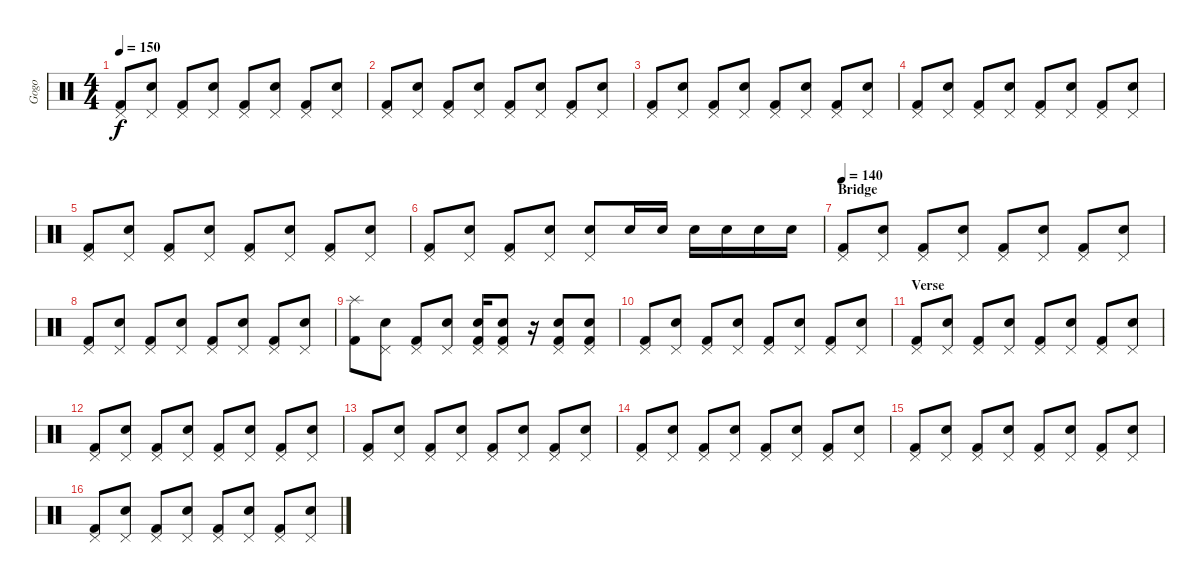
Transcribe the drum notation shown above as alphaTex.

\track ("Gogo" "Gogo") {instrument percussion}
\staff {score}
\articulation defaults
\ts (4 4)
\tempo 150
\clef neutral
\ks c
("Pedal Hi-Hat (hit)" "Kick (hit) 2").8{dy f} ("Pedal Hi-Hat (hit)" "Electric Snare (hit)").8 ("Pedal Hi-Hat (hit)" "Kick (hit) 2").8 ("Pedal Hi-Hat (hit)" "Electric Snare (hit)").8 ("Pedal Hi-Hat (hit)" "Kick (hit) 2").8 ("Pedal Hi-Hat (hit)" "Electric Snare (hit)").8 ("Pedal Hi-Hat (hit)" "Kick (hit) 2").8 ("Pedal Hi-Hat (hit)" "Electric Snare (hit)").8 |
("Pedal Hi-Hat (hit)" "Kick (hit) 2").8 ("Pedal Hi-Hat (hit)" "Electric Snare (hit)").8 ("Pedal Hi-Hat (hit)" "Kick (hit) 2").8 ("Pedal Hi-Hat (hit)" "Electric Snare (hit)").8 ("Pedal Hi-Hat (hit)" "Kick (hit) 2").8 ("Pedal Hi-Hat (hit)" "Electric Snare (hit)").8 ("Pedal Hi-Hat (hit)" "Kick (hit) 2").8 ("Pedal Hi-Hat (hit)" "Electric Snare (hit)").8 |
("Pedal Hi-Hat (hit)" "Kick (hit) 2").8 ("Pedal Hi-Hat (hit)" "Electric Snare (hit)").8 ("Pedal Hi-Hat (hit)" "Kick (hit) 2").8 ("Pedal Hi-Hat (hit)" "Electric Snare (hit)").8 ("Pedal Hi-Hat (hit)" "Kick (hit) 2").8 ("Pedal Hi-Hat (hit)" "Electric Snare (hit)").8 ("Pedal Hi-Hat (hit)" "Kick (hit) 2").8 ("Pedal Hi-Hat (hit)" "Electric Snare (hit)").8 |
("Pedal Hi-Hat (hit)" "Kick (hit) 2").8 ("Pedal Hi-Hat (hit)" "Electric Snare (hit)").8 ("Pedal Hi-Hat (hit)" "Kick (hit) 2").8 ("Pedal Hi-Hat (hit)" "Electric Snare (hit)").8 ("Pedal Hi-Hat (hit)" "Kick (hit) 2").8 ("Pedal Hi-Hat (hit)" "Electric Snare (hit)").8 ("Pedal Hi-Hat (hit)" "Kick (hit) 2").8 ("Pedal Hi-Hat (hit)" "Electric Snare (hit)").8 |
("Pedal Hi-Hat (hit)" "Kick (hit) 2").8 ("Pedal Hi-Hat (hit)" "Electric Snare (hit)").8 ("Pedal Hi-Hat (hit)" "Kick (hit) 2").8 ("Pedal Hi-Hat (hit)" "Electric Snare (hit)").8 ("Pedal Hi-Hat (hit)" "Kick (hit) 2").8 ("Pedal Hi-Hat (hit)" "Electric Snare (hit)").8 ("Pedal Hi-Hat (hit)" "Kick (hit) 2").8 ("Pedal Hi-Hat (hit)" "Electric Snare (hit)").8 |
("Pedal Hi-Hat (hit)" "Kick (hit) 2").8 ("Pedal Hi-Hat (hit)" "Electric Snare (hit)").8 ("Pedal Hi-Hat (hit)" "Kick (hit) 2").8 ("Pedal Hi-Hat (hit)" "Electric Snare (hit)").8 ("Pedal Hi-Hat (hit)" "Electric Snare (hit)").8 "Electric Snare (hit)".16 "Electric Snare (hit)".16 "Electric Snare (hit)".16 "Electric Snare (hit)".16 "Electric Snare (hit)".16 "Electric Snare (hit)".16 |
\section ("" "Bridge")
\tempo 140
("Pedal Hi-Hat (hit)" "Kick (hit) 2").8 ("Pedal Hi-Hat (hit)" "Electric Snare (hit)").8 ("Pedal Hi-Hat (hit)" "Kick (hit) 2").8 ("Pedal Hi-Hat (hit)" "Electric Snare (hit)").8 ("Pedal Hi-Hat (hit)" "Kick (hit) 2").8 ("Pedal Hi-Hat (hit)" "Electric Snare (hit)").8 ("Pedal Hi-Hat (hit)" "Kick (hit) 2").8 ("Pedal Hi-Hat (hit)" "Electric Snare (hit)").8 |
("Pedal Hi-Hat (hit)" "Kick (hit) 2").8 ("Pedal Hi-Hat (hit)" "Electric Snare (hit)").8 ("Pedal Hi-Hat (hit)" "Kick (hit) 2").8 ("Pedal Hi-Hat (hit)" "Electric Snare (hit)").8 ("Pedal Hi-Hat (hit)" "Kick (hit) 2").8 ("Pedal Hi-Hat (hit)" "Electric Snare (hit)").8 ("Pedal Hi-Hat (hit)" "Kick (hit) 2").8 ("Pedal Hi-Hat (hit)" "Electric Snare (hit)").8 |
("Splash (hit)" "Kick (hit) 2").8 ("Pedal Hi-Hat (hit)" "Electric Snare (hit)").8 ("Pedal Hi-Hat (hit)" "Kick (hit) 2").8 ("Pedal Hi-Hat (hit)" "Electric Snare (hit)").8 ("Pedal Hi-Hat (hit)" "Electric Snare (hit)" "Kick (hit) 2").16 ("Pedal Hi-Hat (hit)" "Electric Snare (hit)" "Kick (hit) 2").8 r.16 ("Pedal Hi-Hat (hit)" "Electric Snare (hit)" "Kick (hit) 2").8 ("Pedal Hi-Hat (hit)" "Electric Snare (hit)" "Kick (hit) 2").8 |
("Pedal Hi-Hat (hit)" "Kick (hit) 2").8 ("Pedal Hi-Hat (hit)" "Electric Snare (hit)").8 ("Pedal Hi-Hat (hit)" "Kick (hit) 2").8 ("Pedal Hi-Hat (hit)" "Electric Snare (hit)").8 ("Pedal Hi-Hat (hit)" "Kick (hit) 2").8 ("Pedal Hi-Hat (hit)" "Electric Snare (hit)").8 ("Pedal Hi-Hat (hit)" "Kick (hit) 2").8 ("Pedal Hi-Hat (hit)" "Electric Snare (hit)").8 |
\section ("" "Verse")
("Pedal Hi-Hat (hit)" "Kick (hit) 2").8 ("Pedal Hi-Hat (hit)" "Electric Snare (hit)").8 ("Pedal Hi-Hat (hit)" "Kick (hit) 2").8 ("Pedal Hi-Hat (hit)" "Electric Snare (hit)").8 ("Pedal Hi-Hat (hit)" "Kick (hit) 2").8 ("Pedal Hi-Hat (hit)" "Electric Snare (hit)").8 ("Pedal Hi-Hat (hit)" "Kick (hit) 2").8 ("Pedal Hi-Hat (hit)" "Electric Snare (hit)").8 |
("Pedal Hi-Hat (hit)" "Kick (hit) 2").8 ("Pedal Hi-Hat (hit)" "Electric Snare (hit)").8 ("Pedal Hi-Hat (hit)" "Kick (hit) 2").8 ("Pedal Hi-Hat (hit)" "Electric Snare (hit)").8 ("Pedal Hi-Hat (hit)" "Kick (hit) 2").8 ("Pedal Hi-Hat (hit)" "Electric Snare (hit)").8 ("Pedal Hi-Hat (hit)" "Kick (hit) 2").8 ("Pedal Hi-Hat (hit)" "Electric Snare (hit)").8 |
("Pedal Hi-Hat (hit)" "Kick (hit) 2").8 ("Pedal Hi-Hat (hit)" "Electric Snare (hit)").8 ("Pedal Hi-Hat (hit)" "Kick (hit) 2").8 ("Pedal Hi-Hat (hit)" "Electric Snare (hit)").8 ("Pedal Hi-Hat (hit)" "Kick (hit) 2").8 ("Pedal Hi-Hat (hit)" "Electric Snare (hit)").8 ("Pedal Hi-Hat (hit)" "Kick (hit) 2").8 ("Pedal Hi-Hat (hit)" "Electric Snare (hit)").8 |
("Pedal Hi-Hat (hit)" "Kick (hit) 2").8 ("Pedal Hi-Hat (hit)" "Electric Snare (hit)").8 ("Pedal Hi-Hat (hit)" "Kick (hit) 2").8 ("Pedal Hi-Hat (hit)" "Electric Snare (hit)").8 ("Pedal Hi-Hat (hit)" "Kick (hit) 2").8 ("Pedal Hi-Hat (hit)" "Electric Snare (hit)").8 ("Pedal Hi-Hat (hit)" "Kick (hit) 2").8 ("Pedal Hi-Hat (hit)" "Electric Snare (hit)").8 |
("Pedal Hi-Hat (hit)" "Kick (hit) 2").8 ("Pedal Hi-Hat (hit)" "Electric Snare (hit)").8 ("Pedal Hi-Hat (hit)" "Kick (hit) 2").8 ("Pedal Hi-Hat (hit)" "Electric Snare (hit)").8 ("Pedal Hi-Hat (hit)" "Kick (hit) 2").8 ("Pedal Hi-Hat (hit)" "Electric Snare (hit)").8 ("Pedal Hi-Hat (hit)" "Kick (hit) 2").8 ("Pedal Hi-Hat (hit)" "Electric Snare (hit)").8 |
("Pedal Hi-Hat (hit)" "Kick (hit) 2").8 ("Pedal Hi-Hat (hit)" "Electric Snare (hit)").8 ("Pedal Hi-Hat (hit)" "Kick (hit) 2").8 ("Pedal Hi-Hat (hit)" "Electric Snare (hit)").8 ("Pedal Hi-Hat (hit)" "Kick (hit) 2").8 ("Pedal Hi-Hat (hit)" "Electric Snare (hit)").8 ("Pedal Hi-Hat (hit)" "Kick (hit) 2").8 ("Pedal Hi-Hat (hit)" "Electric Snare (hit)").8
